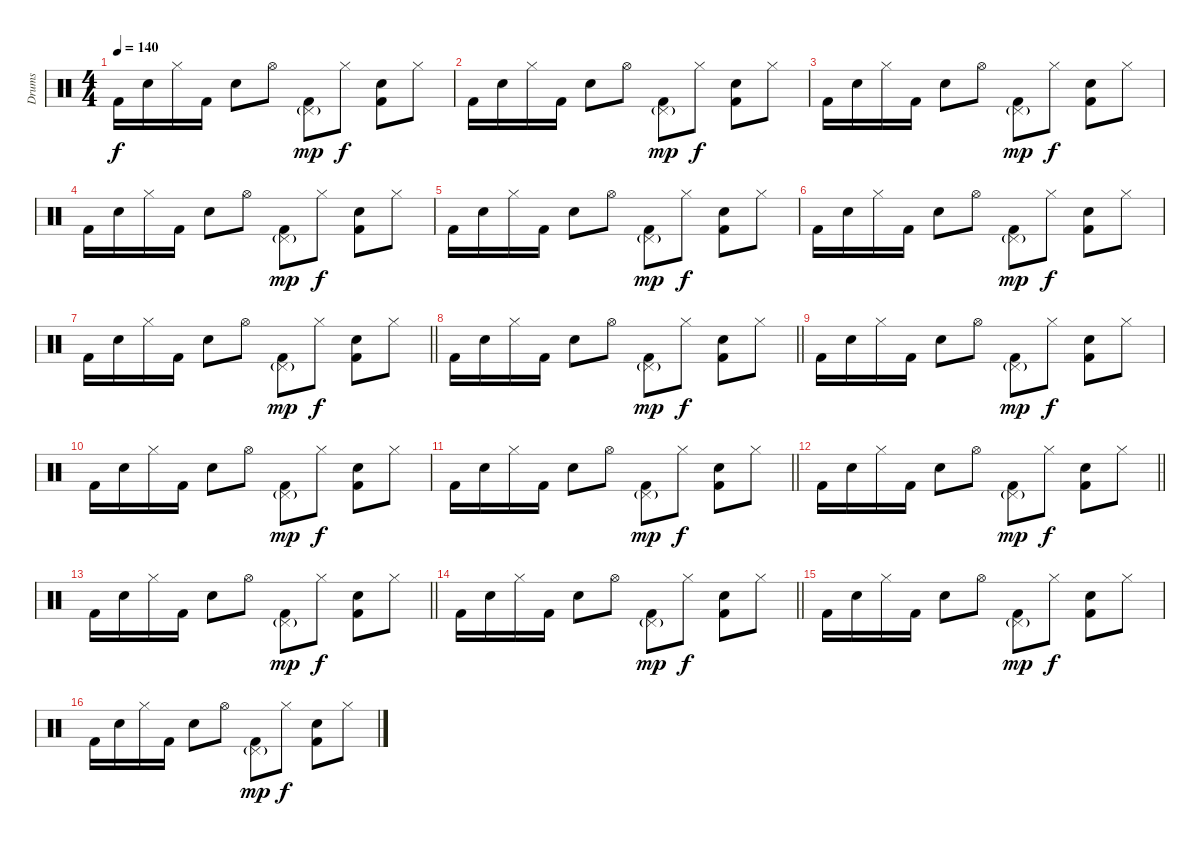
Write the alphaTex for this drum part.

\track ("Drums" "Drums") {instrument percussion}
\staff {score}
\articulation defaults
\ts (4 4)
\tempo 140
\clef neutral
\ks c "Kick (hit) 2".16{dy f} "Snare (hit) 2".16 "Hi-Hat (closed)".16 "Kick (hit) 2".16 "Snare (hit) 2".8 "Hi-Hat (open)".8
("Pedal Hi-Hat (hit)"{g} "Kick (hit) 2").8{dy mp} "Hi-Hat (closed)".8{dy f} ("Snare (hit) 2" "Kick (hit) 2").8 "Hi-Hat (closed)".8 |
"Kick (hit) 2".16 "Snare (hit) 2".16 "Hi-Hat (closed)".16 "Kick (hit) 2".16 "Snare (hit) 2".8 "Hi-Hat (open)".8 ("Pedal Hi-Hat (hit)"{g} "Kick (hit) 2").8{dy mp} "Hi-Hat (closed)".8{dy f} ("Snare (hit) 2" "Kick (hit) 2").8 "Hi-Hat (closed)".8 |
"Kick (hit) 2".16 "Snare (hit) 2".16 "Hi-Hat (closed)".16 "Kick (hit) 2".16 "Snare (hit) 2".8 "Hi-Hat (open)".8 ("Pedal Hi-Hat (hit)"{g} "Kick (hit) 2").8{dy mp} "Hi-Hat (closed)".8{dy f} ("Snare (hit) 2" "Kick (hit) 2").8 "Hi-Hat (closed)".8 |
"Kick (hit) 2".16 "Snare (hit) 2".16 "Hi-Hat (closed)".16 "Kick (hit) 2".16 "Snare (hit) 2".8 "Hi-Hat (open)".8 ("Pedal Hi-Hat (hit)"{g} "Kick (hit) 2").8{dy mp} "Hi-Hat (closed)".8{dy f} ("Snare (hit) 2" "Kick (hit) 2").8 "Hi-Hat (closed)".8 |
"Kick (hit) 2".16 "Snare (hit) 2".16 "Hi-Hat (closed)".16 "Kick (hit) 2".16 "Snare (hit) 2".8 "Hi-Hat (open)".8 ("Pedal Hi-Hat (hit)"{g} "Kick (hit) 2").8{dy mp} "Hi-Hat (closed)".8{dy f} ("Snare (hit) 2" "Kick (hit) 2").8 "Hi-Hat (closed)".8 |
"Kick (hit) 2".16 "Snare (hit) 2".16 "Hi-Hat (closed)".16 "Kick (hit) 2".16 "Snare (hit) 2".8 "Hi-Hat (open)".8 ("Pedal Hi-Hat (hit)"{g} "Kick (hit) 2").8{dy mp} "Hi-Hat (closed)".8{dy f} ("Snare (hit) 2" "Kick (hit) 2").8 "Hi-Hat (closed)".8 |
\barLineRight lightlight "Kick (hit) 2".16 "Snare (hit) 2".16 "Hi-Hat (closed)".16 "Kick (hit) 2".16 "Snare (hit) 2".8 "Hi-Hat (open)".8
("Pedal Hi-Hat (hit)"{g} "Kick (hit) 2").8{dy mp} "Hi-Hat (closed)".8{dy f} ("Snare (hit) 2" "Kick (hit) 2").8 "Hi-Hat (closed)".8 |
\barLineRight lightlight "Kick (hit) 2".16 "Snare (hit) 2".16 "Hi-Hat (closed)".16 "Kick (hit) 2".16 "Snare (hit) 2".8 "Hi-Hat (open)".8
("Pedal Hi-Hat (hit)"{g} "Kick (hit) 2").8{dy mp} "Hi-Hat (closed)".8{dy f} ("Snare (hit) 2" "Kick (hit) 2").8 "Hi-Hat (closed)".8 |
"Kick (hit) 2".16 "Snare (hit) 2".16 "Hi-Hat (closed)".16 "Kick (hit) 2".16 "Snare (hit) 2".8 "Hi-Hat (open)".8 ("Pedal Hi-Hat (hit)"{g} "Kick (hit) 2").8{dy mp} "Hi-Hat (closed)".8{dy f} ("Snare (hit) 2" "Kick (hit) 2").8 "Hi-Hat (closed)".8 |
"Kick (hit) 2".16 "Snare (hit) 2".16 "Hi-Hat (closed)".16 "Kick (hit) 2".16 "Snare (hit) 2".8 "Hi-Hat (open)".8 ("Pedal Hi-Hat (hit)"{g} "Kick (hit) 2").8{dy mp} "Hi-Hat (closed)".8{dy f} ("Snare (hit) 2" "Kick (hit) 2").8 "Hi-Hat (closed)".8 |
\barLineRight lightlight "Kick (hit) 2".16 "Snare (hit) 2".16 "Hi-Hat (closed)".16 "Kick (hit) 2".16 "Snare (hit) 2".8 "Hi-Hat (open)".8
("Pedal Hi-Hat (hit)"{g} "Kick (hit) 2").8{dy mp} "Hi-Hat (closed)".8{dy f} ("Snare (hit) 2" "Kick (hit) 2").8 "Hi-Hat (closed)".8 |
\barLineRight lightlight "Kick (hit) 2".16 "Snare (hit) 2".16 "Hi-Hat (closed)".16 "Kick (hit) 2".16 "Snare (hit) 2".8 "Hi-Hat (open)".8
("Pedal Hi-Hat (hit)"{g} "Kick (hit) 2").8{dy mp} "Hi-Hat (closed)".8{dy f} ("Snare (hit) 2" "Kick (hit) 2").8 "Hi-Hat (closed)".8 |
\barLineRight lightlight "Kick (hit) 2".16 "Snare (hit) 2".16 "Hi-Hat (closed)".16 "Kick (hit) 2".16 "Snare (hit) 2".8 "Hi-Hat (open)".8
("Pedal Hi-Hat (hit)"{g} "Kick (hit) 2").8{dy mp} "Hi-Hat (closed)".8{dy f} ("Snare (hit) 2" "Kick (hit) 2").8 "Hi-Hat (closed)".8 |
\barLineRight lightlight "Kick (hit) 2".16 "Snare (hit) 2".16 "Hi-Hat (closed)".16 "Kick (hit) 2".16 "Snare (hit) 2".8 "Hi-Hat (open)".8
("Pedal Hi-Hat (hit)"{g} "Kick (hit) 2").8{dy mp} "Hi-Hat (closed)".8{dy f} ("Snare (hit) 2" "Kick (hit) 2").8 "Hi-Hat (closed)".8 |
"Kick (hit) 2".16 "Snare (hit) 2".16 "Hi-Hat (closed)".16 "Kick (hit) 2".16 "Snare (hit) 2".8 "Hi-Hat (open)".8 ("Pedal Hi-Hat (hit)"{g} "Kick (hit) 2").8{dy mp} "Hi-Hat (closed)".8{dy f} ("Snare (hit) 2" "Kick (hit) 2").8 "Hi-Hat (closed)".8 |
"Kick (hit) 2".16 "Snare (hit) 2".16 "Hi-Hat (closed)".16 "Kick (hit) 2".16 "Snare (hit) 2".8 "Hi-Hat (open)".8 ("Pedal Hi-Hat (hit)"{g} "Kick (hit) 2").8{dy mp} "Hi-Hat (closed)".8{dy f} ("Snare (hit) 2" "Kick (hit) 2").8 "Hi-Hat (closed)".8
